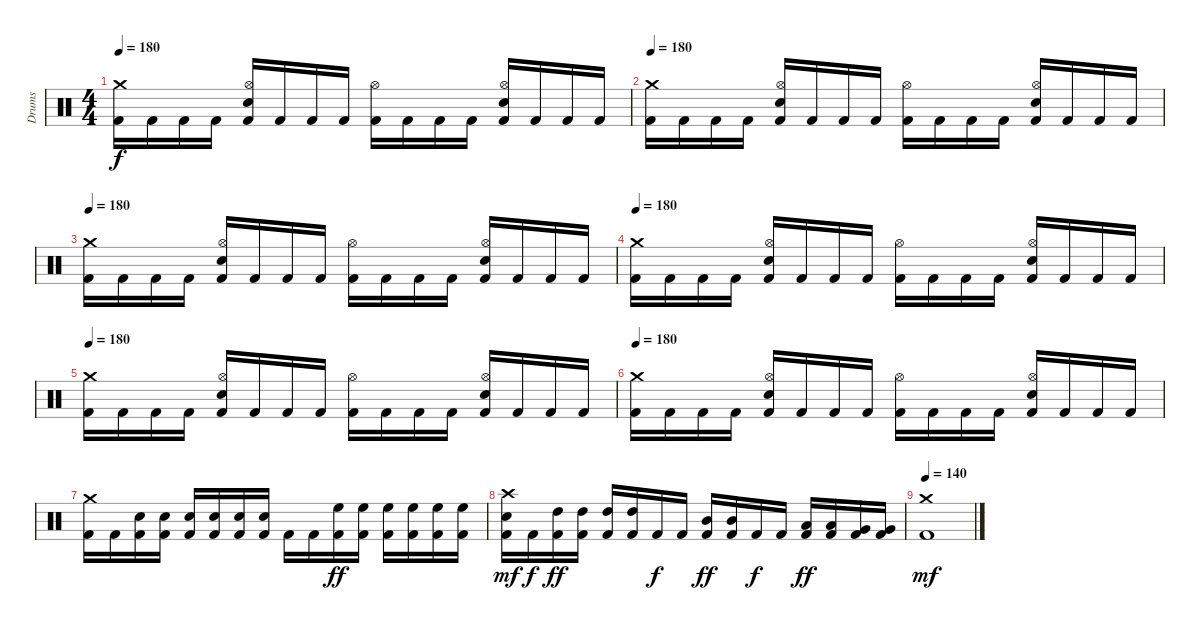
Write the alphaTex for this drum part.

\track ("Drums" "Drums") {instrument percussion}
\staff {score}
\articulation defaults
\ts (4 4)
\tempo 180
\clef neutral
\ks c
("Crash medium (hit)" "Kick (hit) 2").16{dy f} "Kick (hit) 2".16 "Kick (hit) 2".16 "Kick (hit) 2".16 ("Hi-Hat (open)" "Electric Snare (hit)" "Kick (hit) 2").16 "Kick (hit) 2".16 "Kick (hit) 2".16 "Kick (hit) 2".16 ("Hi-Hat (open)" "Kick (hit) 2").16 "Kick (hit) 2".16 "Kick (hit) 2".16 "Kick (hit) 2".16 ("Hi-Hat (open)" "Electric Snare (hit)" "Kick (hit) 2").16 "Kick (hit) 2".16 "Kick (hit) 2".16 "Kick (hit) 2".16 |
\tempo 180
("Crash medium (hit)" "Kick (hit) 2").16 "Kick (hit) 2".16 "Kick (hit) 2".16 "Kick (hit) 2".16 ("Hi-Hat (open)" "Electric Snare (hit)" "Kick (hit) 2").16 "Kick (hit) 2".16 "Kick (hit) 2".16 "Kick (hit) 2".16 ("Hi-Hat (open)" "Kick (hit) 2").16 "Kick (hit) 2".16 "Kick (hit) 2".16 "Kick (hit) 2".16 ("Hi-Hat (open)" "Electric Snare (hit)" "Kick (hit) 2").16 "Kick (hit) 2".16 "Kick (hit) 2".16 "Kick (hit) 2".16 |
\tempo 180
("Crash medium (hit)" "Kick (hit) 2").16 "Kick (hit) 2".16 "Kick (hit) 2".16 "Kick (hit) 2".16 ("Hi-Hat (open)" "Electric Snare (hit)" "Kick (hit) 2").16 "Kick (hit) 2".16 "Kick (hit) 2".16 "Kick (hit) 2".16 ("Hi-Hat (open)" "Kick (hit) 2").16 "Kick (hit) 2".16 "Kick (hit) 2".16 "Kick (hit) 2".16 ("Hi-Hat (open)" "Electric Snare (hit)" "Kick (hit) 2").16 "Kick (hit) 2".16 "Kick (hit) 2".16 "Kick (hit) 2".16 |
\tempo 180
("Crash medium (hit)" "Kick (hit) 2").16 "Kick (hit) 2".16 "Kick (hit) 2".16 "Kick (hit) 2".16 ("Hi-Hat (open)" "Electric Snare (hit)" "Kick (hit) 2").16 "Kick (hit) 2".16 "Kick (hit) 2".16 "Kick (hit) 2".16 ("Hi-Hat (open)" "Kick (hit) 2").16 "Kick (hit) 2".16 "Kick (hit) 2".16 "Kick (hit) 2".16 ("Hi-Hat (open)" "Electric Snare (hit)" "Kick (hit) 2").16 "Kick (hit) 2".16 "Kick (hit) 2".16 "Kick (hit) 2".16 |
\tempo 180
("Crash medium (hit)" "Kick (hit) 2").16 "Kick (hit) 2".16 "Kick (hit) 2".16 "Kick (hit) 2".16 ("Hi-Hat (open)" "Electric Snare (hit)" "Kick (hit) 2").16 "Kick (hit) 2".16 "Kick (hit) 2".16 "Kick (hit) 2".16 ("Hi-Hat (open)" "Kick (hit) 2").16 "Kick (hit) 2".16 "Kick (hit) 2".16 "Kick (hit) 2".16 ("Hi-Hat (open)" "Electric Snare (hit)" "Kick (hit) 2").16 "Kick (hit) 2".16 "Kick (hit) 2".16 "Kick (hit) 2".16 |
\tempo 180
("Crash medium (hit)" "Kick (hit) 2").16 "Kick (hit) 2".16 "Kick (hit) 2".16 "Kick (hit) 2".16 ("Hi-Hat (open)" "Electric Snare (hit)" "Kick (hit) 2").16 "Kick (hit) 2".16 "Kick (hit) 2".16 "Kick (hit) 2".16 ("Hi-Hat (open)" "Kick (hit) 2").16 "Kick (hit) 2".16 "Kick (hit) 2".16 "Kick (hit) 2".16 ("Hi-Hat (open)" "Electric Snare (hit)" "Kick (hit) 2").16 "Kick (hit) 2".16 "Kick (hit) 2".16 "Kick (hit) 2".16 |
("Crash medium (hit)" "Kick (hit) 2").16 "Kick (hit) 2".16 ("Electric Snare (hit)" "Kick (hit) 2").16 ("Electric Snare (hit)" "Kick (hit) 2").16 ("Electric Snare (hit)" "Kick (hit) 2").16 ("Electric Snare (hit)" "Kick (hit) 2").16 ("Electric Snare (hit)" "Kick (hit) 2").16 ("Electric Snare (hit)" "Kick (hit) 2").16 "Kick (hit) 2".16 "Kick (hit) 2".16 ("High Floor Tom (hit)" "Kick (hit) 2").16{dy ff} ("High Floor Tom (hit)" "Kick (hit) 2").16 ("High Floor Tom (hit)" "Kick (hit) 2").16 ("High Floor Tom (hit)" "Kick (hit) 2").16 ("High Floor Tom (hit)" "Kick (hit) 2").16 ("High Floor Tom (hit)" "Kick (hit) 2").16 |
("Crash high (hit)" "Electric Snare (hit)" "Kick (hit) 2").16{dy mf} "Kick (hit) 2".16{dy f} ("High Tom (hit)" "Kick (hit) 2").16{dy ff} ("High Tom (hit)" "Kick (hit) 2").16 ("High Tom (hit)" "Kick (hit) 2").16 ("High Tom (hit)" "Kick (hit) 2").16 "Kick (hit) 2".16{dy f} "Kick (hit) 2".16 ("Mid Tom (hit)" "Kick (hit) 2").16{dy ff} ("Mid Tom (hit)" "Kick (hit) 2").16 "Kick (hit) 2".16{dy f} "Kick (hit) 2".16 ("Low Tom (hit)" "Kick (hit) 2").16{dy ff} ("Low Tom (hit)" "Kick (hit) 2").16 ("Very Low Tom (hit)" "Kick (hit) 2").16 ("Very Low Tom (hit)" "Kick (hit) 2").16 |
\tempo 140
("Crash medium (hit)" "Kick (hit) 2").1{dy mf}
